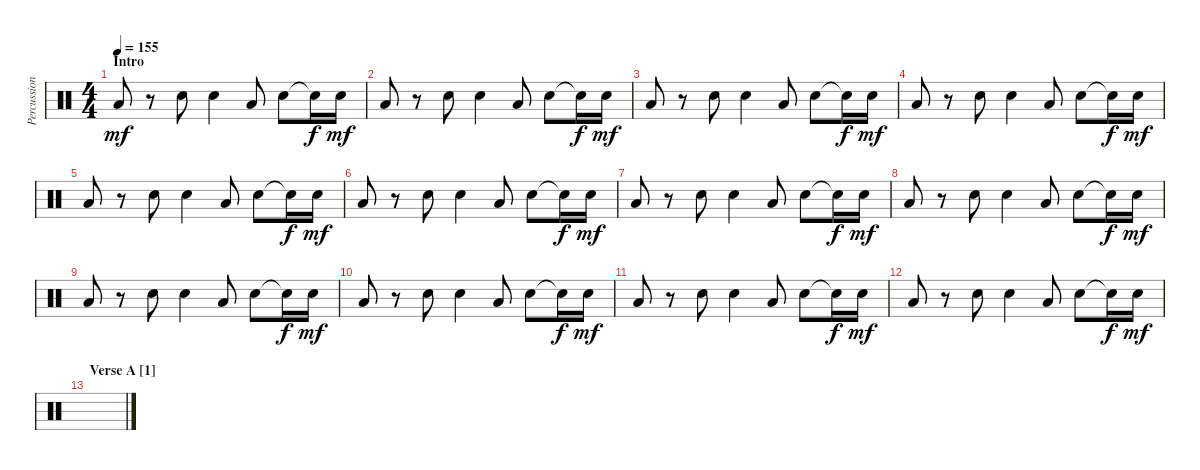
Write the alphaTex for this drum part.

\track ("Percussion" "Percussion") {instrument percussion}
\staff {score}
\articulation defaults
\ts (4 4)
\section ("" "Intro")
\tempo 155
\clef neutral
\ks c "Low Floor Tom (hit)".8{dy mf}
r.8 "Electric Snare (hit)".8 "Electric Snare (hit)".4 "Low Floor Tom (hit)".8 "Electric Snare (hit)".8 "Snare (hit)"{t}.16{dy f} "Electric Snare (hit)".16{dy mf} |
"Low Floor Tom (hit)".8 r.8 "Electric Snare (hit)".8 "Electric Snare (hit)".4 "Low Floor Tom (hit)".8 "Electric Snare (hit)".8 "Snare (hit)"{t}.16{dy f} "Electric Snare (hit)".16{dy mf} |
"Low Floor Tom (hit)".8 r.8 "Electric Snare (hit)".8 "Electric Snare (hit)".4 "Low Floor Tom (hit)".8 "Electric Snare (hit)".8 "Snare (hit)"{t}.16{dy f} "Electric Snare (hit)".16{dy mf} |
"Low Floor Tom (hit)".8 r.8 "Electric Snare (hit)".8 "Electric Snare (hit)".4 "Low Floor Tom (hit)".8 "Electric Snare (hit)".8 "Snare (hit)"{t}.16{dy f} "Electric Snare (hit)".16{dy mf} |
"Low Floor Tom (hit)".8 r.8 "Electric Snare (hit)".8 "Electric Snare (hit)".4 "Low Floor Tom (hit)".8 "Electric Snare (hit)".8 "Snare (hit)"{t}.16{dy f} "Electric Snare (hit)".16{dy mf} |
"Low Floor Tom (hit)".8 r.8 "Electric Snare (hit)".8 "Electric Snare (hit)".4 "Low Floor Tom (hit)".8 "Electric Snare (hit)".8 "Snare (hit)"{t}.16{dy f} "Electric Snare (hit)".16{dy mf} |
"Low Floor Tom (hit)".8 r.8 "Electric Snare (hit)".8 "Electric Snare (hit)".4 "Low Floor Tom (hit)".8 "Electric Snare (hit)".8 "Snare (hit)"{t}.16{dy f} "Electric Snare (hit)".16{dy mf} |
"Low Floor Tom (hit)".8 r.8 "Electric Snare (hit)".8 "Electric Snare (hit)".4 "Low Floor Tom (hit)".8 "Electric Snare (hit)".8 "Snare (hit)"{t}.16{dy f} "Electric Snare (hit)".16{dy mf} |
"Low Floor Tom (hit)".8 r.8 "Electric Snare (hit)".8 "Electric Snare (hit)".4 "Low Floor Tom (hit)".8 "Electric Snare (hit)".8 "Snare (hit)"{t}.16{dy f} "Electric Snare (hit)".16{dy mf} |
"Low Floor Tom (hit)".8 r.8 "Electric Snare (hit)".8 "Electric Snare (hit)".4 "Low Floor Tom (hit)".8 "Electric Snare (hit)".8 "Snare (hit)"{t}.16{dy f} "Electric Snare (hit)".16{dy mf} |
"Low Floor Tom (hit)".8 r.8 "Electric Snare (hit)".8 "Electric Snare (hit)".4 "Low Floor Tom (hit)".8 "Electric Snare (hit)".8 "Snare (hit)"{t}.16{dy f} "Electric Snare (hit)".16{dy mf} |
"Low Floor Tom (hit)".8 r.8 "Electric Snare (hit)".8 "Electric Snare (hit)".4 "Low Floor Tom (hit)".8 "Electric Snare (hit)".8 "Snare (hit)"{t}.16{dy f} "Electric Snare (hit)".16{dy mf} |
\section ("" "Verse A [1]")
